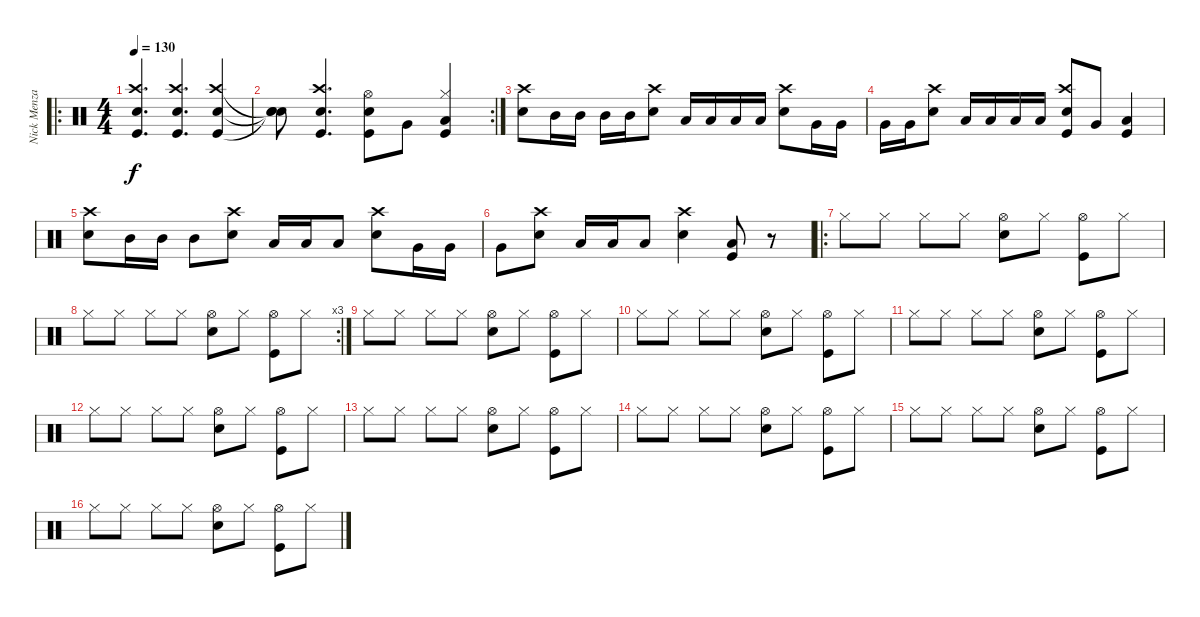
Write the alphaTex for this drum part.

\track ("Nick Menza" "Nick Menza") {instrument percussion}
\staff {score}
\articulation defaults
\ro
\ts (4 4)
\tempo 130
\clef neutral
\ks c
("Snare (hit) 2" "Crash high (hit)" "Kick (hit)").4{d dy f} ("Snare (hit) 2" "Crash high (hit)" "Kick (hit)").4{d} ("Snare (hit) 2" "Crash high (hit)" "Kick (hit)").4 |
\rc 2
("Snare (hit)"{t} "Snare (hit)"{t} "Snare (hit)"{t}).8 ("Snare (hit) 2" "Crash high (hit)" "Kick (hit)").4{d} ("Snare (hit) 2" "Kick (hit)" "Hi-Hat (open)").8 "Very Low Tom (hit)".8 ("Hi-Hat (closed)" "Low Floor Tom (hit)" "Kick (hit)").4 |
("Crash high (hit)" "Snare (hit) 2").8 "Mid Tom (hit)".16 "Mid Tom (hit)".16 "Mid Tom (hit)".16 "Mid Tom (hit)".16 ("Crash high (hit)" "Snare (hit) 2").8 "Low Tom (hit)".16 "Low Tom (hit)".16 "Low Tom (hit)".16 "Low Tom (hit)".16 ("Crash high (hit)" "Snare (hit) 2").8 "Very Low Tom (hit)".16 "Very Low Tom (hit)".16 |
"Very Low Tom (hit)".16 "Very Low Tom (hit)".16 ("Crash high (hit)" "Snare (hit) 2").8 "Low Floor Tom (hit)".16 "Low Floor Tom (hit)".16 "Low Floor Tom (hit)".16 "Low Floor Tom (hit)".16 ("Crash high (hit)" "Snare (hit) 2" "Kick (hit)").8 "Very Low Tom (hit)".8 ("Low Floor Tom (hit)" "Kick (hit)").4 |
("Crash high (hit)" "Snare (hit) 2").8 "Mid Tom (hit)".16 "Mid Tom (hit)".16 "Mid Tom (hit)".8 ("Crash high (hit)" "Snare (hit) 2").8 "Low Tom (hit)".16 "Low Tom (hit)".16 "Low Tom (hit)".8 ("Crash high (hit)" "Snare (hit) 2").8 "Very Low Tom (hit)".16 "Very Low Tom (hit)".16 |
"Very Low Tom (hit)".8 ("Crash high (hit)" "Snare (hit) 2").8 "Low Floor Tom (hit)".16 "Low Floor Tom (hit)".16 "Low Floor Tom (hit)".8 ("Crash high (hit)" "Snare (hit) 2").4 ("Low Floor Tom (hit)" "Kick (hit)").8 r.8 |
\ro "Hi-Hat (closed)".8 "Hi-Hat (closed)".8 "Hi-Hat (closed)".8 "Hi-Hat (closed)".8
("Snare (hit) 2" "Hi-Hat (open)").8 "Hi-Hat (closed)".8 ("Hi-Hat (open)" "Kick (hit)").8 "Hi-Hat (closed)".8 |
\rc 3 "Hi-Hat (closed)".8 "Hi-Hat (closed)".8 "Hi-Hat (closed)".8 "Hi-Hat (closed)".8
("Snare (hit) 2" "Hi-Hat (open)").8 "Hi-Hat (closed)".8 ("Hi-Hat (open)" "Kick (hit)").8 "Hi-Hat (closed)".8 |
"Hi-Hat (closed)".8 "Hi-Hat (closed)".8 "Hi-Hat (closed)".8 "Hi-Hat (closed)".8 ("Snare (hit) 2" "Hi-Hat (open)").8 "Hi-Hat (closed)".8 ("Hi-Hat (open)" "Kick (hit)").8 "Hi-Hat (closed)".8 |
"Hi-Hat (closed)".8 "Hi-Hat (closed)".8 "Hi-Hat (closed)".8 "Hi-Hat (closed)".8 ("Snare (hit) 2" "Hi-Hat (open)").8 "Hi-Hat (closed)".8 ("Hi-Hat (open)" "Kick (hit)").8 "Hi-Hat (closed)".8 |
"Hi-Hat (closed)".8 "Hi-Hat (closed)".8 "Hi-Hat (closed)".8 "Hi-Hat (closed)".8 ("Snare (hit) 2" "Hi-Hat (open)").8 "Hi-Hat (closed)".8 ("Hi-Hat (open)" "Kick (hit)").8 "Hi-Hat (closed)".8 |
"Hi-Hat (closed)".8 "Hi-Hat (closed)".8 "Hi-Hat (closed)".8 "Hi-Hat (closed)".8 ("Snare (hit) 2" "Hi-Hat (open)").8 "Hi-Hat (closed)".8 ("Hi-Hat (open)" "Kick (hit)").8 "Hi-Hat (closed)".8 |
"Hi-Hat (closed)".8 "Hi-Hat (closed)".8 "Hi-Hat (closed)".8 "Hi-Hat (closed)".8 ("Snare (hit) 2" "Hi-Hat (open)").8 "Hi-Hat (closed)".8 ("Hi-Hat (open)" "Kick (hit)").8 "Hi-Hat (closed)".8 |
"Hi-Hat (closed)".8 "Hi-Hat (closed)".8 "Hi-Hat (closed)".8 "Hi-Hat (closed)".8 ("Snare (hit) 2" "Hi-Hat (open)").8 "Hi-Hat (closed)".8 ("Hi-Hat (open)" "Kick (hit)").8 "Hi-Hat (closed)".8 |
"Hi-Hat (closed)".8 "Hi-Hat (closed)".8 "Hi-Hat (closed)".8 "Hi-Hat (closed)".8 ("Snare (hit) 2" "Hi-Hat (open)").8 "Hi-Hat (closed)".8 ("Hi-Hat (open)" "Kick (hit)").8 "Hi-Hat (closed)".8 |
"Hi-Hat (closed)".8 "Hi-Hat (closed)".8 "Hi-Hat (closed)".8 "Hi-Hat (closed)".8 ("Snare (hit) 2" "Hi-Hat (open)").8 "Hi-Hat (closed)".8 ("Hi-Hat (open)" "Kick (hit)").8 "Hi-Hat (closed)".8
